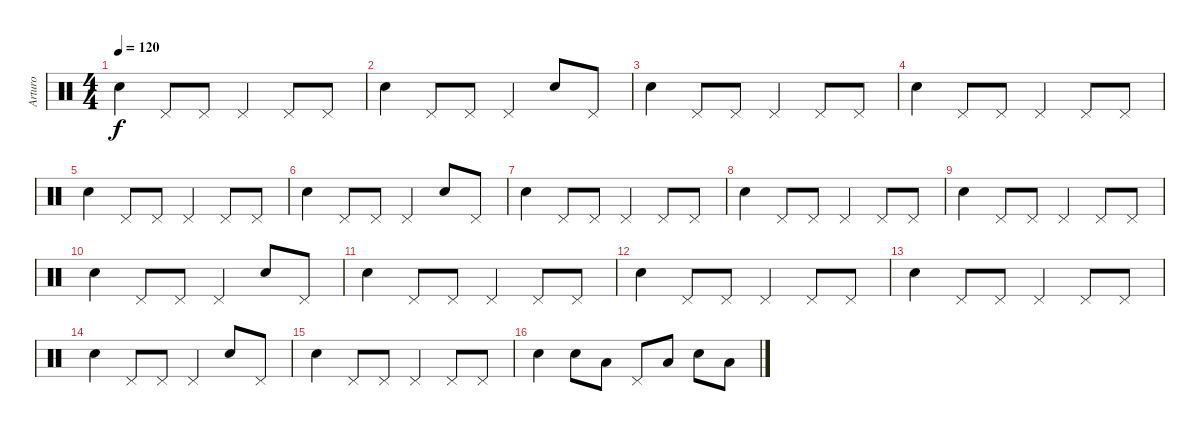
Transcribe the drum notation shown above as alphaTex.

\track ("Arturo" "Arturo") {instrument percussion}
\staff {score}
\articulation defaults
\ts (4 4)
\tempo 120
\clef neutral
\ks c "Snare (hit) 2".4{dy f} "Pedal Hi-Hat (hit)".8 "Pedal Hi-Hat (hit)".8 "Pedal Hi-Hat (hit)".4 "Pedal Hi-Hat (hit)".8 "Pedal Hi-Hat (hit)".8
|
"Snare (hit) 2".4 "Pedal Hi-Hat (hit)".8 "Pedal Hi-Hat (hit)".8 "Pedal Hi-Hat (hit)".4 "Electric Snare (hit)".8 "Pedal Hi-Hat (hit)".8 |
"Snare (hit) 2".4 "Pedal Hi-Hat (hit)".8 "Pedal Hi-Hat (hit)".8 "Pedal Hi-Hat (hit)".4 "Pedal Hi-Hat (hit)".8 "Pedal Hi-Hat (hit)".8 |
"Snare (hit) 2".4 "Pedal Hi-Hat (hit)".8 "Pedal Hi-Hat (hit)".8 "Pedal Hi-Hat (hit)".4 "Pedal Hi-Hat (hit)".8 "Pedal Hi-Hat (hit)".8 |
"Snare (hit) 2".4 "Pedal Hi-Hat (hit)".8 "Pedal Hi-Hat (hit)".8 "Pedal Hi-Hat (hit)".4 "Pedal Hi-Hat (hit)".8 "Pedal Hi-Hat (hit)".8 |
"Snare (hit) 2".4 "Pedal Hi-Hat (hit)".8 "Pedal Hi-Hat (hit)".8 "Pedal Hi-Hat (hit)".4 "Electric Snare (hit)".8 "Pedal Hi-Hat (hit)".8 |
"Snare (hit) 2".4 "Pedal Hi-Hat (hit)".8 "Pedal Hi-Hat (hit)".8 "Pedal Hi-Hat (hit)".4 "Pedal Hi-Hat (hit)".8 "Pedal Hi-Hat (hit)".8 |
"Snare (hit) 2".4 "Pedal Hi-Hat (hit)".8 "Pedal Hi-Hat (hit)".8 "Pedal Hi-Hat (hit)".4 "Pedal Hi-Hat (hit)".8 "Pedal Hi-Hat (hit)".8 |
"Snare (hit) 2".4 "Pedal Hi-Hat (hit)".8 "Pedal Hi-Hat (hit)".8 "Pedal Hi-Hat (hit)".4 "Pedal Hi-Hat (hit)".8 "Pedal Hi-Hat (hit)".8 |
"Snare (hit) 2".4 "Pedal Hi-Hat (hit)".8 "Pedal Hi-Hat (hit)".8 "Pedal Hi-Hat (hit)".4 "Electric Snare (hit)".8 "Pedal Hi-Hat (hit)".8 |
"Snare (hit) 2".4 "Pedal Hi-Hat (hit)".8 "Pedal Hi-Hat (hit)".8 "Pedal Hi-Hat (hit)".4 "Pedal Hi-Hat (hit)".8 "Pedal Hi-Hat (hit)".8 |
"Snare (hit) 2".4 "Pedal Hi-Hat (hit)".8 "Pedal Hi-Hat (hit)".8 "Pedal Hi-Hat (hit)".4 "Pedal Hi-Hat (hit)".8 "Pedal Hi-Hat (hit)".8 |
"Snare (hit) 2".4 "Pedal Hi-Hat (hit)".8 "Pedal Hi-Hat (hit)".8 "Pedal Hi-Hat (hit)".4 "Pedal Hi-Hat (hit)".8 "Pedal Hi-Hat (hit)".8 |
"Snare (hit) 2".4 "Pedal Hi-Hat (hit)".8 "Pedal Hi-Hat (hit)".8 "Pedal Hi-Hat (hit)".4 "Electric Snare (hit)".8 "Pedal Hi-Hat (hit)".8 |
"Snare (hit) 2".4 "Pedal Hi-Hat (hit)".8 "Pedal Hi-Hat (hit)".8 "Pedal Hi-Hat (hit)".4 "Pedal Hi-Hat (hit)".8 "Pedal Hi-Hat (hit)".8 |
"Snare (hit) 2".4 "Snare (hit) 2".8 "Low Tom (hit)".8 "Pedal Hi-Hat (hit)".8 "Low Tom (hit)".8 "Snare (hit) 2".8 "Low Tom (hit)".8
